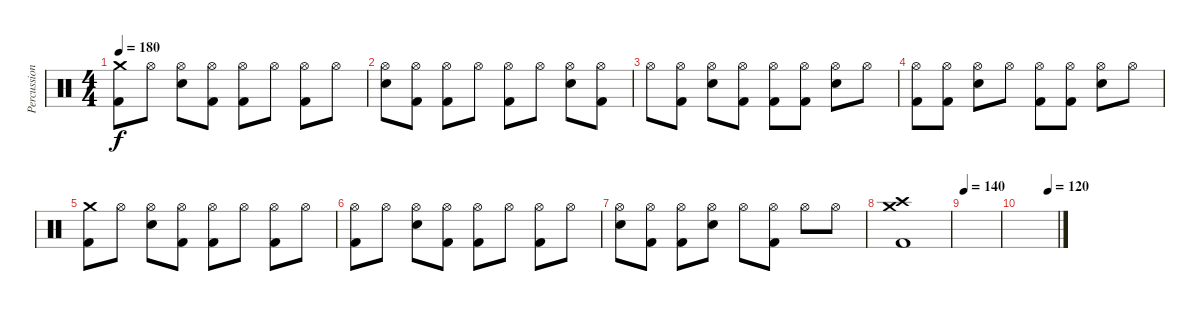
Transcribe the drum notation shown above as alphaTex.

\track ("Percussioni" "Percussion") {instrument percussion}
\staff {score}
\articulation defaults
\ts (4 4)
\tempo 180
\clef neutral
\ks c
("Crash medium (hit)" "Kick (hit) 2").8{dy f} "Hi-Hat (open)".8 ("Hi-Hat (open)" "Electric Snare (hit)").8 ("Hi-Hat (open)" "Kick (hit) 2").8 ("Hi-Hat (open)" "Kick (hit) 2").8 "Hi-Hat (open)".8 ("Hi-Hat (open)" "Kick (hit) 2").8 "Hi-Hat (open)".8 |
("Hi-Hat (open)" "Electric Snare (hit)").8 ("Hi-Hat (open)" "Kick (hit) 2").8 ("Hi-Hat (open)" "Kick (hit) 2").8 "Hi-Hat (open)".8 ("Hi-Hat (open)" "Kick (hit) 2").8 "Hi-Hat (open)".8 ("Hi-Hat (open)" "Electric Snare (hit)").8 ("Hi-Hat (open)" "Kick (hit) 2").8 |
"Hi-Hat (open)".8 ("Hi-Hat (open)" "Kick (hit) 2").8 ("Hi-Hat (open)" "Electric Snare (hit)").8 ("Hi-Hat (open)" "Kick (hit) 2").8 ("Hi-Hat (open)" "Kick (hit) 2").8 ("Hi-Hat (open)" "Kick (hit) 2").8 ("Hi-Hat (open)" "Electric Snare (hit)").8 "Hi-Hat (open)".8 |
("Hi-Hat (open)" "Kick (hit) 2").8 ("Hi-Hat (open)" "Kick (hit) 2").8 ("Hi-Hat (open)" "Electric Snare (hit)").8 "Hi-Hat (open)".8 ("Hi-Hat (open)" "Kick (hit) 2").8 ("Hi-Hat (open)" "Kick (hit) 2").8 ("Hi-Hat (open)" "Electric Snare (hit)").8 "Hi-Hat (open)".8 |
("Crash medium (hit)" "Kick (hit) 2").8 "Hi-Hat (open)".8 ("Hi-Hat (open)" "Electric Snare (hit)").8 ("Hi-Hat (open)" "Kick (hit) 2").8 ("Hi-Hat (open)" "Kick (hit) 2").8 "Hi-Hat (open)".8 ("Hi-Hat (open)" "Kick (hit) 2").8 "Hi-Hat (open)".8 |
("Hi-Hat (open)" "Kick (hit) 2").8 "Hi-Hat (open)".8 ("Hi-Hat (open)" "Electric Snare (hit)").8 ("Hi-Hat (open)" "Kick (hit) 2").8 ("Hi-Hat (open)" "Kick (hit) 2").8 "Hi-Hat (open)".8 ("Hi-Hat (open)" "Kick (hit) 2").8 "Hi-Hat (open)".8 |
("Hi-Hat (open)" "Electric Snare (hit)").8 ("Hi-Hat (open)" "Kick (hit) 2").8 ("Hi-Hat (open)" "Kick (hit) 2").8 ("Hi-Hat (open)" "Electric Snare (hit)").8 "Hi-Hat (open)".8 ("Hi-Hat (open)" "Kick (hit) 2").8 "Hi-Hat (open)".8 "Hi-Hat (open)".8 |
("Crash medium (hit)" "Crash high (hit)" "Kick (hit) 2").1 |
\tempo 140
|
\tempo (120 0.75)
